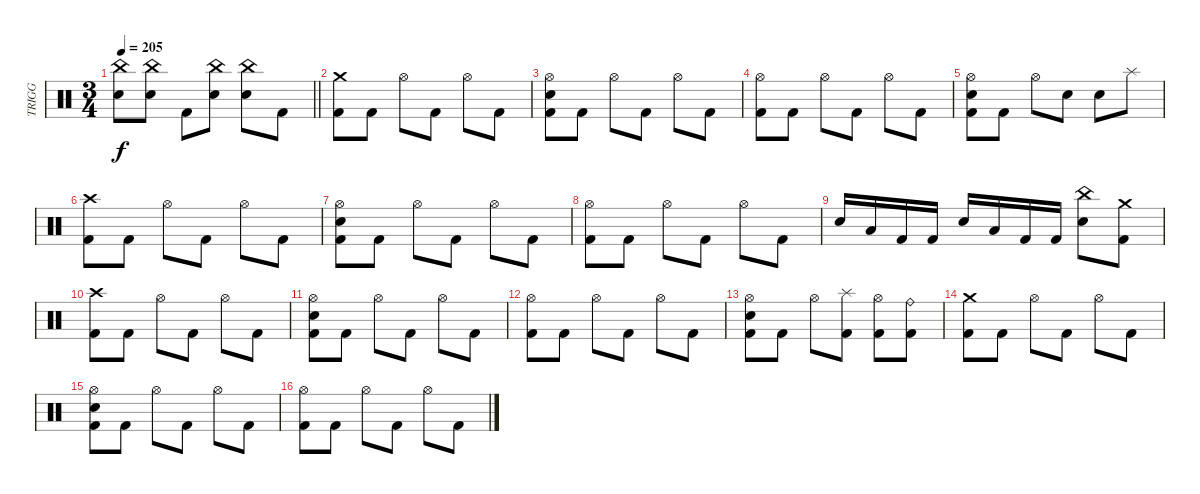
\track ("TRIGG" "TRIGG") {instrument percussion}
\staff {score}
\articulation defaults
\ts (3 4)
\tempo 205
\clef neutral
\barLineRight lightlight
\ks c
("China (hit)" "Electric Snare (hit)").8{dy f} ("China (hit)" "Electric Snare (hit)").8 "Kick (hit) 2".8 ("China (hit)" "Electric Snare (hit)").8 ("China (hit)" "Electric Snare (hit)").8 "Kick (hit) 2".8 |
("Crash medium (hit)" "Kick (hit) 2").8 "Kick (hit) 2".8 "Hi-Hat (open)".8 "Kick (hit) 2".8 "Hi-Hat (open)".8 "Kick (hit) 2".8 |
("Hi-Hat (open)" "Electric Snare (hit)" "Kick (hit) 2").8 "Kick (hit) 2".8 "Hi-Hat (open)".8 "Kick (hit) 2".8 "Hi-Hat (open)".8 "Kick (hit) 2".8 |
("Hi-Hat (open)" "Kick (hit) 2").8 "Kick (hit) 2".8 "Hi-Hat (open)".8 "Kick (hit) 2".8 "Hi-Hat (open)".8 "Kick (hit) 2".8 |
("Hi-Hat (open)" "Electric Snare (hit)" "Kick (hit) 2").8 "Kick (hit) 2".8 "Hi-Hat (open)".8 "Electric Snare (hit)".8 "Electric Snare (hit)".8 "Splash (hit)".8 |
("Crash high (hit)" "Kick (hit) 2").8 "Kick (hit) 2".8 "Hi-Hat (open)".8 "Kick (hit) 2".8 "Hi-Hat (open)".8 "Kick (hit) 2".8 |
("Hi-Hat (open)" "Electric Snare (hit)" "Kick (hit) 2").8 "Kick (hit) 2".8 "Hi-Hat (open)".8 "Kick (hit) 2".8 "Hi-Hat (open)".8 "Kick (hit) 2".8 |
("Hi-Hat (open)" "Kick (hit) 2").8 "Kick (hit) 2".8 "Hi-Hat (open)".8 "Kick (hit) 2".8 "Hi-Hat (open)".8 "Kick (hit) 2".8 |
"Electric Snare (hit)".16 "Low Tom (hit)".16 "Kick (hit) 2".16 "Kick (hit) 2".16 "Electric Snare (hit)".16 "Low Tom (hit)".16 "Kick (hit) 2".16 "Kick (hit) 2".16 ("Electric Snare (hit)" "China (hit)").8 ("Kick (hit) 2" "Crash medium (hit)").8 |
("Crash high (hit)" "Kick (hit) 2").8 "Kick (hit) 2".8 "Hi-Hat (open)".8 "Kick (hit) 2".8 "Hi-Hat (open)".8 "Kick (hit) 2".8 |
("Hi-Hat (open)" "Electric Snare (hit)" "Kick (hit) 2").8 "Kick (hit) 2".8 "Hi-Hat (open)".8 "Kick (hit) 2".8 "Hi-Hat (open)".8 "Kick (hit) 2".8 |
("Hi-Hat (open)" "Kick (hit) 2").8 "Kick (hit) 2".8 "Hi-Hat (open)".8 "Kick (hit) 2".8 "Hi-Hat (open)".8 "Kick (hit) 2".8 |
("Hi-Hat (open)" "Electric Snare (hit)" "Kick (hit) 2").8 "Kick (hit) 2".8 "Hi-Hat (open)".8 ("Splash (hit)" "Kick (hit) 2").8 ("Hi-Hat (open)" "Kick (hit) 2").8 ("Ride (bell)" "Kick (hit) 2").8 |
("Crash medium (hit)" "Kick (hit) 2").8 "Kick (hit) 2".8 "Hi-Hat (open)".8 "Kick (hit) 2".8 "Hi-Hat (open)".8 "Kick (hit) 2".8 |
("Hi-Hat (open)" "Electric Snare (hit)" "Kick (hit) 2").8 "Kick (hit) 2".8 "Hi-Hat (open)".8 "Kick (hit) 2".8 "Hi-Hat (open)".8 "Kick (hit) 2".8 |
("Hi-Hat (open)" "Kick (hit) 2").8 "Kick (hit) 2".8 "Hi-Hat (open)".8 "Kick (hit) 2".8 "Hi-Hat (open)".8 "Kick (hit) 2".8
